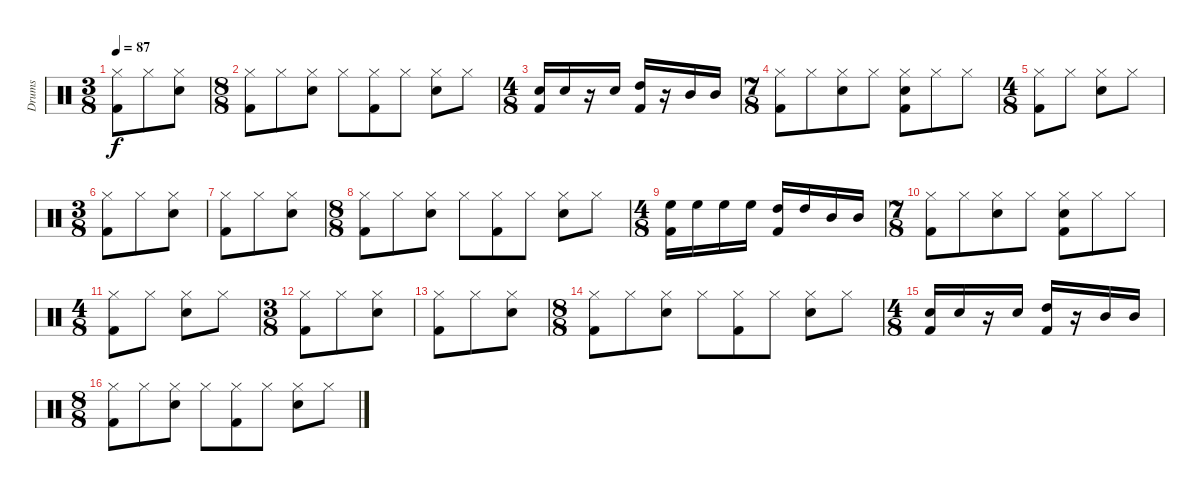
\track ("Drums" "Drums") {instrument percussion}
\staff {score}
\articulation defaults
\ts (3 8)
\tempo 87
\clef neutral
\ks c
("Hi-Hat (closed)" "Kick (hit) 2").8{dy f} "Hi-Hat (closed)".8 ("Hi-Hat (closed)" "Snare (hit) 2").8 |
\ts (8 8)
("Hi-Hat (closed)" "Kick (hit) 2").8 "Hi-Hat (closed)".8 ("Hi-Hat (closed)" "Snare (hit) 2").8 "Hi-Hat (closed)".8 ("Hi-Hat (closed)" "Kick (hit) 2").8 "Hi-Hat (closed)".8 ("Hi-Hat (closed)" "Snare (hit) 2").8 "Hi-Hat (closed)".8 |
\ts (4 8)
("Snare (hit) 2" "Kick (hit) 2").16 "Snare (hit) 2".16 r.16 "Snare (hit) 2".16 ("High Tom (hit)" "Kick (hit) 2").16 r.16 "Mid Tom (hit)".16 "Mid Tom (hit)".16 |
\ts (7 8)
("Hi-Hat (closed)" "Kick (hit) 2").8 "Hi-Hat (closed)".8 ("Hi-Hat (closed)" "Snare (hit) 2").8 "Hi-Hat (closed)".8 ("Hi-Hat (closed)" "Kick (hit) 2" "Snare (hit) 2").8 "Hi-Hat (closed)".8 "Hi-Hat (closed)".8 |
\ts (4 8)
("Hi-Hat (closed)" "Kick (hit) 2").8 "Hi-Hat (closed)".8 ("Hi-Hat (closed)" "Snare (hit) 2").8 "Hi-Hat (closed)".8 |
\ts (3 8)
("Hi-Hat (closed)" "Kick (hit) 2").8 "Hi-Hat (closed)".8 ("Hi-Hat (closed)" "Snare (hit) 2").8 |
("Hi-Hat (closed)" "Kick (hit) 2").8 "Hi-Hat (closed)".8 ("Hi-Hat (closed)" "Snare (hit) 2").8 |
\ts (8 8)
("Hi-Hat (closed)" "Kick (hit) 2").8 "Hi-Hat (closed)".8 ("Hi-Hat (closed)" "Snare (hit) 2").8 "Hi-Hat (closed)".8 ("Hi-Hat (closed)" "Kick (hit) 2").8 "Hi-Hat (closed)".8 ("Hi-Hat (closed)" "Snare (hit) 2").8 "Hi-Hat (closed)".8 |
\ts (4 8)
("High Floor Tom (hit)" "Kick (hit) 2").16 "High Floor Tom (hit)".16 "High Floor Tom (hit)".16 "High Floor Tom (hit)".16 ("High Tom (hit)" "Kick (hit) 2").16 "High Tom (hit)".16 "Mid Tom (hit)".16 "Mid Tom (hit)".16 |
\ts (7 8)
("Hi-Hat (closed)" "Kick (hit) 2").8 "Hi-Hat (closed)".8 ("Hi-Hat (closed)" "Snare (hit) 2").8 "Hi-Hat (closed)".8 ("Hi-Hat (closed)" "Kick (hit) 2" "Snare (hit) 2").8 "Hi-Hat (closed)".8 "Hi-Hat (closed)".8 |
\ts (4 8)
("Hi-Hat (closed)" "Kick (hit) 2").8 "Hi-Hat (closed)".8 ("Hi-Hat (closed)" "Snare (hit) 2").8 "Hi-Hat (closed)".8 |
\ts (3 8)
("Hi-Hat (closed)" "Kick (hit) 2").8 "Hi-Hat (closed)".8 ("Hi-Hat (closed)" "Snare (hit) 2").8 |
("Hi-Hat (closed)" "Kick (hit) 2").8 "Hi-Hat (closed)".8 ("Hi-Hat (closed)" "Snare (hit) 2").8 |
\ts (8 8)
("Hi-Hat (closed)" "Kick (hit) 2").8 "Hi-Hat (closed)".8 ("Hi-Hat (closed)" "Snare (hit) 2").8 "Hi-Hat (closed)".8 ("Hi-Hat (closed)" "Kick (hit) 2").8 "Hi-Hat (closed)".8 ("Hi-Hat (closed)" "Snare (hit) 2").8 "Hi-Hat (closed)".8 |
\ts (4 8)
("Snare (hit) 2" "Kick (hit) 2").16 "Snare (hit) 2".16 r.16 "Snare (hit) 2".16 ("High Tom (hit)" "Kick (hit) 2").16 r.16 "Mid Tom (hit)".16 "Mid Tom (hit)".16 |
\ts (8 8)
("Hi-Hat (closed)" "Kick (hit) 2").8 "Hi-Hat (closed)".8 ("Hi-Hat (closed)" "Snare (hit) 2").8 "Hi-Hat (closed)".8 ("Hi-Hat (closed)" "Kick (hit) 2").8 "Hi-Hat (closed)".8 ("Hi-Hat (closed)" "Snare (hit) 2").8 "Hi-Hat (closed)".8
